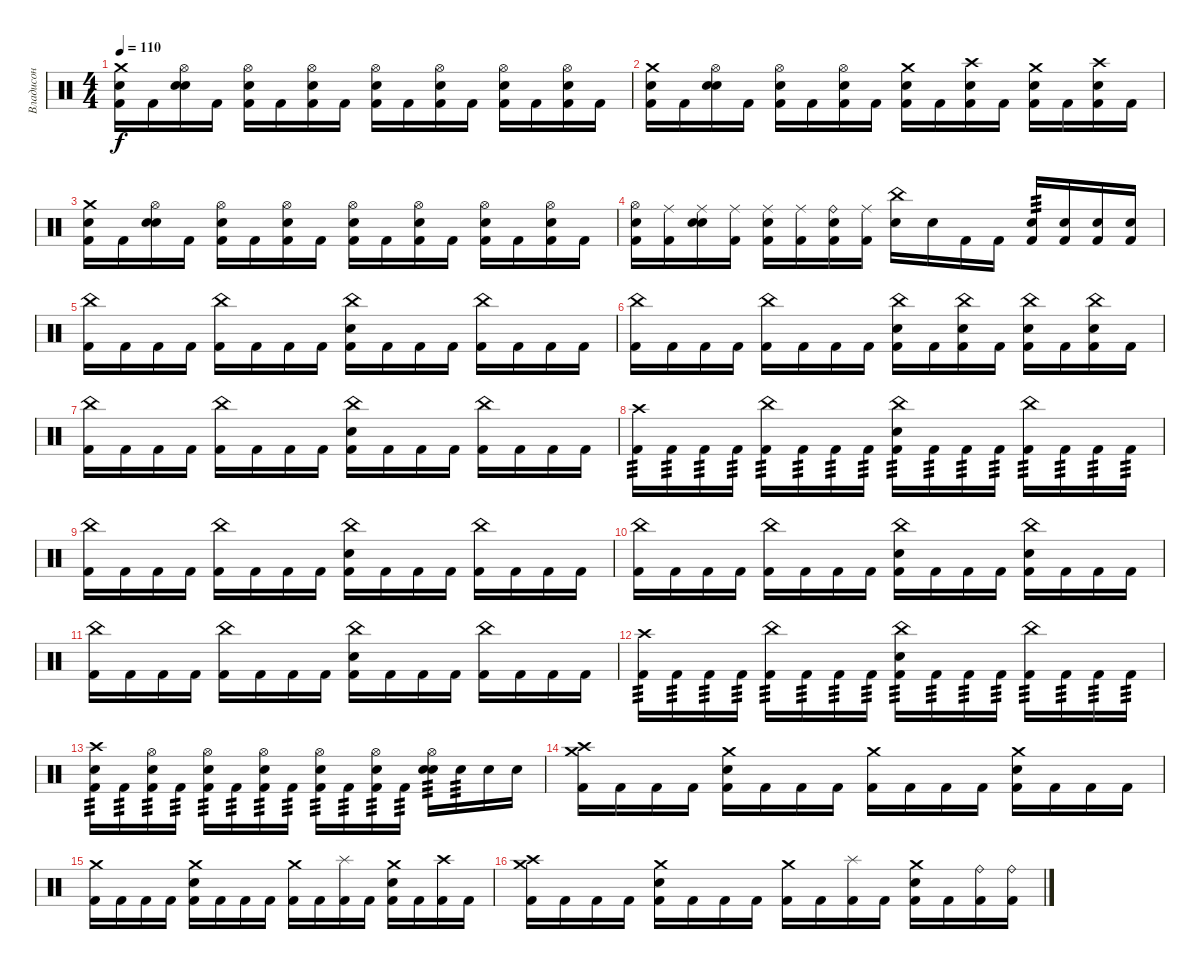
\track ("Владисон" "Владисон") {instrument percussion}
\staff
\articulation defaults
\ts (4 4)
\tempo 110
\clef neutral
\ks c
("Crash medium (hit)" "Snare (hit) 2" "Kick (hit) 2").16{dy f} "Kick (hit) 2".16 ("Hi-Hat (open)" "Snare (hit) 2" "Snare (hit) 2").16 "Kick (hit) 2".16 ("Hi-Hat (open)" "Snare (hit) 2" "Kick (hit) 2").16 "Kick (hit) 2".16 ("Hi-Hat (open)" "Snare (hit) 2" "Kick (hit) 2").16 "Kick (hit) 2".16 ("Hi-Hat (open)" "Snare (hit) 2" "Kick (hit) 2").16 "Kick (hit) 2".16 ("Hi-Hat (open)" "Snare (hit) 2" "Kick (hit) 2").16 "Kick (hit) 2".16 ("Hi-Hat (open)" "Snare (hit) 2" "Kick (hit) 2").16 "Kick (hit) 2".16 ("Hi-Hat (open)" "Snare (hit) 2" "Kick (hit) 2").16 "Kick (hit) 2".16 |
("Crash medium (hit)" "Snare (hit) 2" "Kick (hit) 2").16 "Kick (hit) 2".16 ("Hi-Hat (open)" "Snare (hit) 2" "Snare (hit) 2").16 "Kick (hit) 2".16 ("Hi-Hat (open)" "Snare (hit) 2" "Kick (hit) 2").16 "Kick (hit) 2".16 ("Hi-Hat (open)" "Snare (hit) 2" "Kick (hit) 2").16 "Kick (hit) 2".16 ("Crash medium (hit)" "Snare (hit) 2" "Kick (hit) 2").16 "Kick (hit) 2".16 ("Crash high (hit)" "Snare (hit) 2" "Kick (hit) 2").16 "Kick (hit) 2".16 ("Crash medium (hit)" "Snare (hit) 2" "Kick (hit) 2").16 "Kick (hit) 2".16 ("Crash high (hit)" "Snare (hit) 2" "Kick (hit) 2").16 "Kick (hit) 2".16 |
("Crash medium (hit)" "Snare (hit) 2" "Kick (hit) 2").16 "Kick (hit) 2".16 ("Hi-Hat (open)" "Snare (hit) 2" "Snare (hit) 2").16 "Kick (hit) 2".16 ("Hi-Hat (open)" "Snare (hit) 2" "Kick (hit) 2").16 "Kick (hit) 2".16 ("Hi-Hat (open)" "Snare (hit) 2" "Kick (hit) 2").16 "Kick (hit) 2".16 ("Hi-Hat (open)" "Snare (hit) 2" "Kick (hit) 2").16 "Kick (hit) 2".16 ("Hi-Hat (open)" "Snare (hit) 2" "Kick (hit) 2").16 "Kick (hit) 2".16 ("Hi-Hat (open)" "Snare (hit) 2" "Kick (hit) 2").16 "Kick (hit) 2".16 ("Hi-Hat (open)" "Snare (hit) 2" "Kick (hit) 2").16 "Kick (hit) 2".16 |
("Hi-Hat (open)" "Snare (hit) 2" "Kick (hit) 2").16 ("Ride (middle)" "Kick (hit) 2").16 ("Ride (middle)" "Snare (hit) 2" "Snare (hit) 2").16 ("Ride (middle)" "Kick (hit) 2").16 ("Ride (middle)" "Snare (hit) 2" "Kick (hit) 2").16 ("Ride (middle)" "Kick (hit) 2").16 ("Ride (bell)" "Snare (hit) 2" "Kick (hit) 2").16 ("Ride (middle)" "Kick (hit) 2").16 ("China (hit)" "Snare (hit) 2").16 "Snare (hit) 2".16 "Kick (hit) 2".16 "Kick (hit) 2".16 ("Snare (hit) 2" "Kick (hit) 2").16{tp 3} ("Snare (hit) 2" "Kick (hit) 2").16 ("Snare (hit) 2" "Kick (hit) 2").16 ("Snare (hit) 2" "Kick (hit) 2").16 |
("China (hit)" "Kick (hit) 2").16 "Kick (hit) 2".16 "Kick (hit) 2".16 "Kick (hit) 2".16 ("China (hit)" "Kick (hit) 2").16 "Kick (hit) 2".16 "Kick (hit) 2".16 "Kick (hit) 2".16 ("China (hit)" "Snare (hit) 2" "Kick (hit) 2").16 "Kick (hit) 2".16 "Kick (hit) 2".16 "Kick (hit) 2".16 ("China (hit)" "Kick (hit) 2").16 "Kick (hit) 2".16 "Kick (hit) 2".16 "Kick (hit) 2".16 |
("China (hit)" "Kick (hit) 2").16 "Kick (hit) 2".16 "Kick (hit) 2".16 "Kick (hit) 2".16 ("China (hit)" "Kick (hit) 2").16 "Kick (hit) 2".16 "Kick (hit) 2".16 "Kick (hit) 2".16 ("China (hit)" "Snare (hit) 2" "Kick (hit) 2").16 "Kick (hit) 2".16 ("China (hit)" "Snare (hit) 2" "Kick (hit) 2").16 "Kick (hit) 2".16 ("China (hit)" "Snare (hit) 2" "Kick (hit) 2").16 "Kick (hit) 2".16 ("China (hit)" "Snare (hit) 2" "Kick (hit) 2").16 "Kick (hit) 2".16 |
("China (hit)" "Kick (hit) 2").16 "Kick (hit) 2".16 "Kick (hit) 2".16 "Kick (hit) 2".16 ("China (hit)" "Kick (hit) 2").16 "Kick (hit) 2".16 "Kick (hit) 2".16 "Kick (hit) 2".16 ("China (hit)" "Snare (hit) 2" "Kick (hit) 2").16 "Kick (hit) 2".16 "Kick (hit) 2".16 "Kick (hit) 2".16 ("China (hit)" "Kick (hit) 2").16 "Kick (hit) 2".16 "Kick (hit) 2".16 "Kick (hit) 2".16 |
("Crash high (hit)" "Kick (hit) 2").16{tp 3} "Kick (hit) 2".16{tp 3} "Kick (hit) 2".16{tp 3} "Kick (hit) 2".16{tp 3} ("China (hit)" "Kick (hit) 2").16{tp 3} "Kick (hit) 2".16{tp 3} "Kick (hit) 2".16{tp 3} "Kick (hit) 2".16{tp 3} ("China (hit)" "Snare (hit) 2" "Kick (hit) 2").16{tp 3} "Kick (hit) 2".16{tp 3} "Kick (hit) 2".16{tp 3} "Kick (hit) 2".16{tp 3} ("China (hit)" "Kick (hit) 2").16{tp 3} "Kick (hit) 2".16{tp 3} "Kick (hit) 2".16{tp 3} "Kick (hit) 2".16{tp 3} |
("China (hit)" "Kick (hit) 2").16 "Kick (hit) 2".16 "Kick (hit) 2".16 "Kick (hit) 2".16 ("China (hit)" "Kick (hit) 2").16 "Kick (hit) 2".16 "Kick (hit) 2".16 "Kick (hit) 2".16 ("China (hit)" "Snare (hit) 2" "Kick (hit) 2").16 "Kick (hit) 2".16 "Kick (hit) 2".16 "Kick (hit) 2".16 ("China (hit)" "Kick (hit) 2").16 "Kick (hit) 2".16 "Kick (hit) 2".16 "Kick (hit) 2".16 |
("China (hit)" "Kick (hit) 2").16 "Kick (hit) 2".16 "Kick (hit) 2".16 "Kick (hit) 2".16 ("China (hit)" "Kick (hit) 2").16 "Kick (hit) 2".16 "Kick (hit) 2".16 "Kick (hit) 2".16 ("China (hit)" "Snare (hit) 2" "Kick (hit) 2").16 "Kick (hit) 2".16 "Kick (hit) 2".16 "Kick (hit) 2".16 ("China (hit)" "Snare (hit) 2" "Kick (hit) 2").16 "Kick (hit) 2".16 "Kick (hit) 2".16 "Kick (hit) 2".16 |
("China (hit)" "Kick (hit) 2").16 "Kick (hit) 2".16 "Kick (hit) 2".16 "Kick (hit) 2".16 ("China (hit)" "Kick (hit) 2").16 "Kick (hit) 2".16 "Kick (hit) 2".16 "Kick (hit) 2".16 ("China (hit)" "Snare (hit) 2" "Kick (hit) 2").16 "Kick (hit) 2".16 "Kick (hit) 2".16 "Kick (hit) 2".16 ("China (hit)" "Kick (hit) 2").16 "Kick (hit) 2".16 "Kick (hit) 2".16 "Kick (hit) 2".16 |
("Crash high (hit)" "Kick (hit) 2").16{tp 3} "Kick (hit) 2".16{tp 3} "Kick (hit) 2".16{tp 3} "Kick (hit) 2".16{tp 3} ("China (hit)" "Kick (hit) 2").16{tp 3} "Kick (hit) 2".16{tp 3} "Kick (hit) 2".16{tp 3} "Kick (hit) 2".16{tp 3} ("China (hit)" "Snare (hit) 2" "Kick (hit) 2").16{tp 3} "Kick (hit) 2".16{tp 3} "Kick (hit) 2".16{tp 3} "Kick (hit) 2".16{tp 3} ("China (hit)" "Kick (hit) 2").16{tp 3} "Kick (hit) 2".16{tp 3} "Kick (hit) 2".16{tp 3} "Kick (hit) 2".16{tp 3} |
("Crash high (hit)" "Snare (hit) 2" "Kick (hit) 2").16{tp 3} "Kick (hit) 2".16{tp 3} ("Hi-Hat (open)" "Snare (hit) 2" "Kick (hit) 2").16{tp 3} "Kick (hit) 2".16{tp 3} ("Hi-Hat (open)" "Snare (hit) 2" "Kick (hit) 2").16{tp 3} "Kick (hit) 2".16{tp 3} ("Hi-Hat (open)" "Snare (hit) 2" "Kick (hit) 2").16{tp 3} "Kick (hit) 2".16{tp 3} ("Hi-Hat (open)" "Snare (hit) 2" "Kick (hit) 2").16{tp 3} "Kick (hit) 2".16{tp 3} ("Hi-Hat (open)" "Snare (hit) 2" "Kick (hit) 2").16{tp 3} "Kick (hit) 2".16{tp 3} ("Hi-Hat (open)" "Snare (hit) 2" "Snare (hit) 2").16{tp 3} "Snare (hit) 2".16{tp 3} "Snare (hit) 2".16 "Snare (hit) 2".16 |
("Crash medium (hit)" "Crash high (hit)" "Kick (hit) 2").16 "Kick (hit) 2".16 "Kick (hit) 2".16 "Kick (hit) 2".16 ("Crash medium (hit)" "Snare (hit) 2" "Kick (hit) 2").16 "Kick (hit) 2".16 "Kick (hit) 2".16 "Kick (hit) 2".16 ("Crash medium (hit)" "Kick (hit) 2").16 "Kick (hit) 2".16 "Kick (hit) 2".16 "Kick (hit) 2".16 ("Crash medium (hit)" "Snare (hit) 2" "Kick (hit) 2").16 "Kick (hit) 2".16 "Kick (hit) 2".16 "Kick (hit) 2".16 |
("Crash medium (hit)" "Kick (hit) 2").16 "Kick (hit) 2".16 "Kick (hit) 2".16 "Kick (hit) 2".16 ("Crash medium (hit)" "Snare (hit) 2" "Kick (hit) 2").16 "Kick (hit) 2".16 "Kick (hit) 2".16 "Kick (hit) 2".16 ("Crash medium (hit)" "Kick (hit) 2").16 "Kick (hit) 2".16 ("Splash (hit)" "Kick (hit) 2").16 "Kick (hit) 2".16 ("Crash medium (hit)" "Snare (hit) 2" "Kick (hit) 2").16 "Kick (hit) 2".16 ("Crash high (hit)" "Kick (hit) 2").16 "Kick (hit) 2".16 |
("Crash medium (hit)" "Crash high (hit)" "Kick (hit) 2").16 "Kick (hit) 2".16 "Kick (hit) 2".16 "Kick (hit) 2".16 ("Crash medium (hit)" "Snare (hit) 2" "Kick (hit) 2").16 "Kick (hit) 2".16 "Kick (hit) 2".16 "Kick (hit) 2".16 ("Crash medium (hit)" "Kick (hit) 2").16 "Kick (hit) 2".16 ("Splash (hit)" "Kick (hit) 2").16 "Kick (hit) 2".16 ("Crash medium (hit)" "Snare (hit) 2" "Kick (hit) 2").16 "Kick (hit) 2".16 ("Ride (bell)" "Kick (hit) 2").16 ("Ride (bell)" "Kick (hit) 2").16
